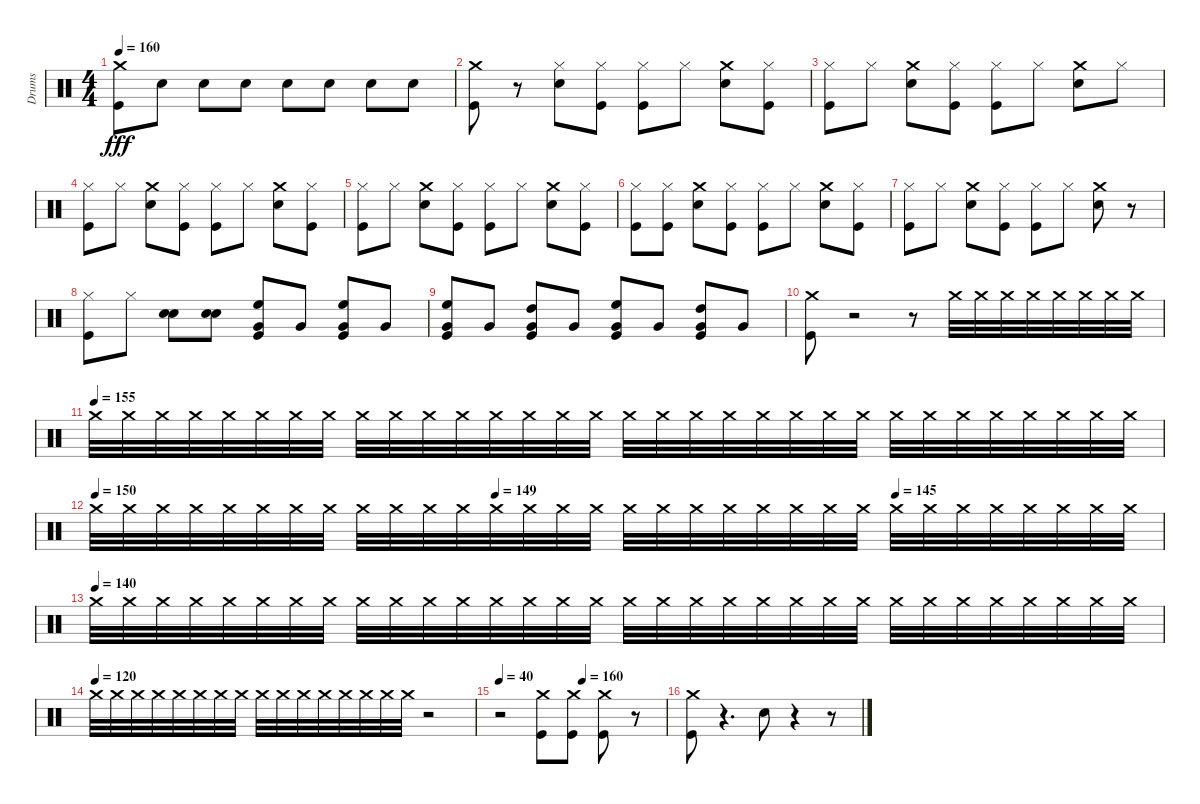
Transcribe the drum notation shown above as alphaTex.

\track ("Drums" "Drums") {instrument percussion}
\staff {score}
\articulation defaults
\ts (4 4)
\tempo 160
\clef neutral
\ks c
("Crash medium (hit)" "Kick (hit)").8{dy fff} "Snare (hit) 2".8 "Snare (hit) 2".8 "Snare (hit) 2".8 "Snare (hit) 2".8 "Snare (hit) 2".8 "Snare (hit) 2".8 "Snare (hit) 2".8 |
("Kick (hit)" "Crash medium (hit)").8 r.8 ("Hi-Hat (closed)" "Snare (hit) 2").8 ("Kick (hit)" "Hi-Hat (closed)").8 ("Kick (hit)" "Hi-Hat (closed)").8 "Hi-Hat (closed)".8 ("Crash medium (hit)" "Snare (hit) 2").8 ("Kick (hit)" "Hi-Hat (closed)").8 |
("Hi-Hat (closed)" "Kick (hit)").8 "Hi-Hat (closed)".8 ("Snare (hit) 2" "Crash medium (hit)").8 ("Hi-Hat (closed)" "Kick (hit)").8 ("Hi-Hat (closed)" "Kick (hit)").8 "Hi-Hat (closed)".8 ("Crash medium (hit)" "Snare (hit) 2").8 "Hi-Hat (closed)".8 |
("Kick (hit)" "Hi-Hat (closed)").8 "Hi-Hat (closed)".8 ("Snare (hit) 2" "Crash medium (hit)").8 ("Hi-Hat (closed)" "Kick (hit)").8 ("Kick (hit)" "Hi-Hat (closed)").8 "Hi-Hat (closed)".8 ("Snare (hit) 2" "Crash medium (hit)").8 ("Hi-Hat (closed)" "Kick (hit)").8 |
("Hi-Hat (closed)" "Kick (hit)").8 "Hi-Hat (closed)".8 ("Crash medium (hit)" "Snare (hit) 2").8 ("Kick (hit)" "Hi-Hat (closed)").8 ("Hi-Hat (closed)" "Kick (hit)").8 "Hi-Hat (closed)".8 ("Crash medium (hit)" "Snare (hit) 2").8 ("Kick (hit)" "Hi-Hat (closed)").8 |
("Hi-Hat (closed)" "Kick (hit)").8 ("Hi-Hat (closed)" "Kick (hit)").8 ("Crash medium (hit)" "Snare (hit) 2").8 ("Kick (hit)" "Hi-Hat (closed)").8 ("Hi-Hat (closed)" "Kick (hit)").8 "Hi-Hat (closed)".8 ("Crash medium (hit)" "Snare (hit) 2").8 ("Kick (hit)" "Hi-Hat (closed)").8 |
("Kick (hit)" "Hi-Hat (closed)").8 "Hi-Hat (closed)".8 ("Crash medium (hit)" "Snare (hit) 2").8 ("Kick (hit)" "Hi-Hat (closed)").8 ("Hi-Hat (closed)" "Kick (hit)").8 "Hi-Hat (closed)".8 ("Crash medium (hit)" "Snare (hit) 2").8 r.8 |
("Hi-Hat (closed)" "Kick (hit)").8 "Hi-Hat (closed)".8 ("Snare (hit) 2" "Snare (hit) 2").8 ("Snare (hit) 2" "Snare (hit) 2").8 ("High Floor Tom (hit)" "Kick (hit)" "Very Low Tom (hit)").8 "Very Low Tom (hit)".8 ("High Floor Tom (hit)" "Kick (hit)" "Very Low Tom (hit)").8 "Very Low Tom (hit)".8 |
("High Floor Tom (hit)" "Kick (hit)" "Very Low Tom (hit)").8 "Very Low Tom (hit)".8 ("High Tom (hit)" "Kick (hit)" "Very Low Tom (hit)").8 "Very Low Tom (hit)".8 ("High Floor Tom (hit)" "Kick (hit)" "Very Low Tom (hit)").8 "Very Low Tom (hit)".8 ("High Tom (hit)" "Kick (hit)" "Very Low Tom (hit)").8 "Very Low Tom (hit)".8 |
("Crash medium (hit)" "Kick (hit)").8 r.2 r.8 "Crash medium (hit)".32 "Crash medium (hit)".32 "Crash medium (hit)".32 "Crash medium (hit)".32 "Crash medium (hit)".32 "Crash medium (hit)".32 "Crash medium (hit)".32 "Crash medium (hit)".32 |
\tempo (155)
"Crash medium (hit)".32 "Crash medium (hit)".32 "Crash medium (hit)".32 "Crash medium (hit)".32 "Crash medium (hit)".32 "Crash medium (hit)".32 "Crash medium (hit)".32 "Crash medium (hit)".32 "Crash medium (hit)".32 "Crash medium (hit)".32 "Crash medium (hit)".32 "Crash medium (hit)".32 "Crash medium (hit)".32 "Crash medium (hit)".32 "Crash medium (hit)".32 "Crash medium (hit)".32 "Crash medium (hit)".32 "Crash medium (hit)".32 "Crash medium (hit)".32 "Crash medium (hit)".32 "Crash medium (hit)".32 "Crash medium (hit)".32 "Crash medium (hit)".32 "Crash medium (hit)".32 "Crash medium (hit)".32 "Crash medium (hit)".32 "Crash medium (hit)".32 "Crash medium (hit)".32 "Crash medium (hit)".32 "Crash medium (hit)".32 "Crash medium (hit)".32 "Crash medium (hit)".32 |
\tempo 150
\tempo (149 0.375)
\tempo (145 0.75)
"Crash medium (hit)".32 "Crash medium (hit)".32 "Crash medium (hit)".32 "Crash medium (hit)".32 "Crash medium (hit)".32 "Crash medium (hit)".32 "Crash medium (hit)".32 "Crash medium (hit)".32 "Crash medium (hit)".32 "Crash medium (hit)".32 "Crash medium (hit)".32 "Crash medium (hit)".32 "Crash medium (hit)".32 "Crash medium (hit)".32 "Crash medium (hit)".32 "Crash medium (hit)".32 "Crash medium (hit)".32 "Crash medium (hit)".32 "Crash medium (hit)".32 "Crash medium (hit)".32 "Crash medium (hit)".32 "Crash medium (hit)".32 "Crash medium (hit)".32 "Crash medium (hit)".32 "Crash medium (hit)".32 "Crash medium (hit)".32 "Crash medium (hit)".32 "Crash medium (hit)".32 "Crash medium (hit)".32 "Crash medium (hit)".32 "Crash medium (hit)".32 "Crash medium (hit)".32 |
\tempo (140)
"Crash medium (hit)".32 "Crash medium (hit)".32 "Crash medium (hit)".32 "Crash medium (hit)".32 "Crash medium (hit)".32 "Crash medium (hit)".32 "Crash medium (hit)".32 "Crash medium (hit)".32 "Crash medium (hit)".32 "Crash medium (hit)".32 "Crash medium (hit)".32 "Crash medium (hit)".32 "Crash medium (hit)".32 "Crash medium (hit)".32 "Crash medium (hit)".32 "Crash medium (hit)".32 "Crash medium (hit)".32 "Crash medium (hit)".32 "Crash medium (hit)".32 "Crash medium (hit)".32 "Crash medium (hit)".32 "Crash medium (hit)".32 "Crash medium (hit)".32 "Crash medium (hit)".32 "Crash medium (hit)".32 "Crash medium (hit)".32 "Crash medium (hit)".32 "Crash medium (hit)".32 "Crash medium (hit)".32 "Crash medium (hit)".32 "Crash medium (hit)".32 "Crash medium (hit)".32 |
\tempo (120)
"Crash medium (hit)".32 "Crash medium (hit)".32 "Crash medium (hit)".32 "Crash medium (hit)".32 "Crash medium (hit)".32 "Crash medium (hit)".32 "Crash medium (hit)".32 "Crash medium (hit)".32 "Crash medium (hit)".32 "Crash medium (hit)".32 "Crash medium (hit)".32 "Crash medium (hit)".32 "Crash medium (hit)".32 "Crash medium (hit)".32 "Crash medium (hit)".32 "Crash medium (hit)".32 r.2 |
\tempo 40
\tempo (160 0.5)
r.2 ("Crash medium (hit)" "Kick (hit)").8 ("Crash medium (hit)" "Kick (hit)").8 ("Crash medium (hit)" "Kick (hit)").8 r.8 |
("Kick (hit)" "Crash medium (hit)").8 r.4{d} "Snare (hit) 2".8 r.4 r.8
